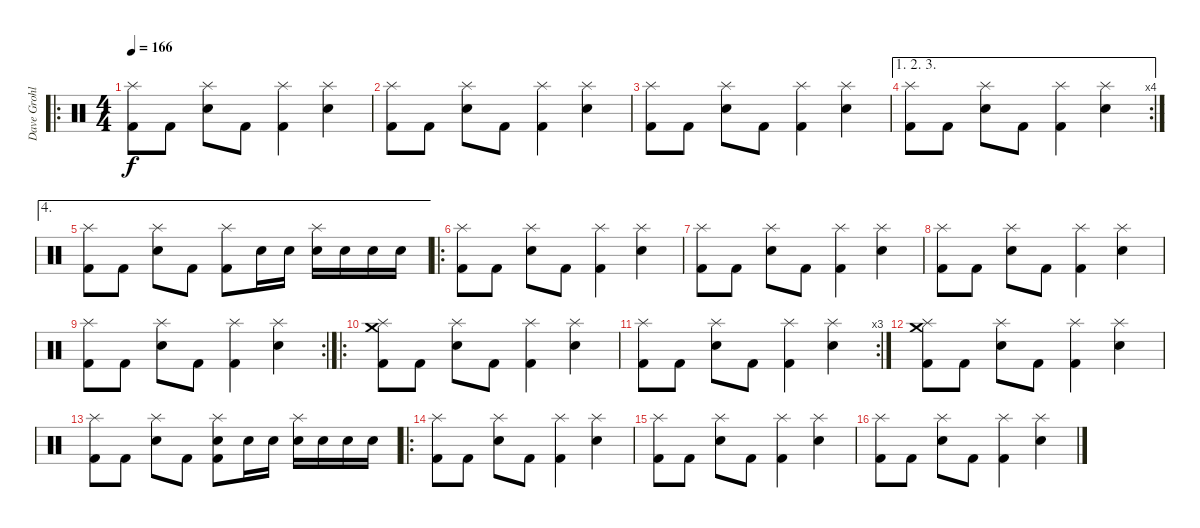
\track ("Dave Grohl" "Dave Grohl") {instrument percussion}
\staff {score}
\articulation defaults
\ro
\ts (4 4)
\tempo 166
\clef neutral
\ks c
("Splash (hit)" "Kick (hit) 2").8{dy f} "Kick (hit) 2".8 ("Splash (hit)" "Snare (hit) 2").8 "Kick (hit) 2".8 ("Splash (hit)" "Kick (hit) 2").4 ("Splash (hit)" "Snare (hit) 2").4 |
("Splash (hit)" "Kick (hit) 2").8 "Kick (hit) 2".8 ("Splash (hit)" "Snare (hit) 2").8 "Kick (hit) 2".8 ("Splash (hit)" "Kick (hit) 2").4 ("Splash (hit)" "Snare (hit) 2").4 |
("Splash (hit)" "Kick (hit) 2").8 "Kick (hit) 2".8 ("Splash (hit)" "Snare (hit) 2").8 "Kick (hit) 2".8 ("Splash (hit)" "Kick (hit) 2").4 ("Splash (hit)" "Snare (hit) 2").4 |
\ae (1 2 3)
\rc 4
("Splash (hit)" "Kick (hit) 2").8 "Kick (hit) 2".8 ("Splash (hit)" "Snare (hit) 2").8 "Kick (hit) 2".8 ("Splash (hit)" "Kick (hit) 2").4 ("Splash (hit)" "Snare (hit) 2").4 |
\ae 4
("Splash (hit)" "Kick (hit) 2").8 "Kick (hit) 2".8 ("Splash (hit)" "Snare (hit) 2").8 "Kick (hit) 2".8 ("Splash (hit)" "Kick (hit) 2").8 "Snare (hit) 2".16 "Snare (hit) 2".16 ("Splash (hit)" "Snare (hit) 2").16 "Snare (hit) 2".16 "Snare (hit) 2".16 "Snare (hit) 2".16 |
\ro
("Splash (hit)" "Kick (hit) 2").8 "Kick (hit) 2".8 ("Splash (hit)" "Snare (hit) 2").8 "Kick (hit) 2".8 ("Splash (hit)" "Kick (hit) 2").4 ("Splash (hit)" "Snare (hit) 2").4 |
("Splash (hit)" "Kick (hit) 2").8 "Kick (hit) 2".8 ("Splash (hit)" "Snare (hit) 2").8 "Kick (hit) 2".8 ("Splash (hit)" "Kick (hit) 2").4 ("Splash (hit)" "Snare (hit) 2").4 |
("Splash (hit)" "Kick (hit) 2").8 "Kick (hit) 2".8 ("Splash (hit)" "Snare (hit) 2").8 "Kick (hit) 2".8 ("Splash (hit)" "Kick (hit) 2").4 ("Splash (hit)" "Snare (hit) 2").4 |
\rc 2
("Splash (hit)" "Kick (hit) 2").8 "Kick (hit) 2".8 ("Splash (hit)" "Snare (hit) 2").8 "Kick (hit) 2".8 ("Splash (hit)" "Kick (hit) 2").4 ("Splash (hit)" "Snare (hit) 2").4 |
\ro
("Splash (hit)" "Crash medium (hit)" "Kick (hit) 2").8 "Kick (hit) 2".8 ("Splash (hit)" "Snare (hit) 2").8 "Kick (hit) 2".8 ("Splash (hit)" "Kick (hit) 2").4 ("Splash (hit)" "Snare (hit) 2").4 |
\rc 3
("Splash (hit)" "Kick (hit) 2").8 "Kick (hit) 2".8 ("Splash (hit)" "Snare (hit) 2").8 "Kick (hit) 2".8 ("Splash (hit)" "Kick (hit) 2").4 ("Splash (hit)" "Snare (hit) 2").4 |
("Splash (hit)" "Crash medium (hit)" "Kick (hit) 2").8 "Kick (hit) 2".8 ("Splash (hit)" "Snare (hit) 2").8 "Kick (hit) 2".8 ("Splash (hit)" "Kick (hit) 2").4 ("Splash (hit)" "Snare (hit) 2").4 |
("Splash (hit)" "Kick (hit) 2").8 "Kick (hit) 2".8 ("Splash (hit)" "Snare (hit) 2").8 "Kick (hit) 2".8 ("Splash (hit)" "Snare (hit) 2" "Kick (hit) 2").8 "Snare (hit) 2".16 "Snare (hit) 2".16 ("Splash (hit)" "Snare (hit) 2").16 "Snare (hit) 2".16 "Snare (hit) 2".16 "Snare (hit) 2".16 |
\ro
("Splash (hit)" "Kick (hit) 2").8 "Kick (hit) 2".8 ("Splash (hit)" "Snare (hit) 2").8 "Kick (hit) 2".8 ("Splash (hit)" "Kick (hit) 2").4 ("Splash (hit)" "Snare (hit) 2").4 |
("Splash (hit)" "Kick (hit) 2").8 "Kick (hit) 2".8 ("Splash (hit)" "Snare (hit) 2").8 "Kick (hit) 2".8 ("Splash (hit)" "Kick (hit) 2").4 ("Splash (hit)" "Snare (hit) 2").4 |
("Splash (hit)" "Kick (hit) 2").8 "Kick (hit) 2".8 ("Splash (hit)" "Snare (hit) 2").8 "Kick (hit) 2".8 ("Splash (hit)" "Kick (hit) 2").4 ("Splash (hit)" "Snare (hit) 2").4
